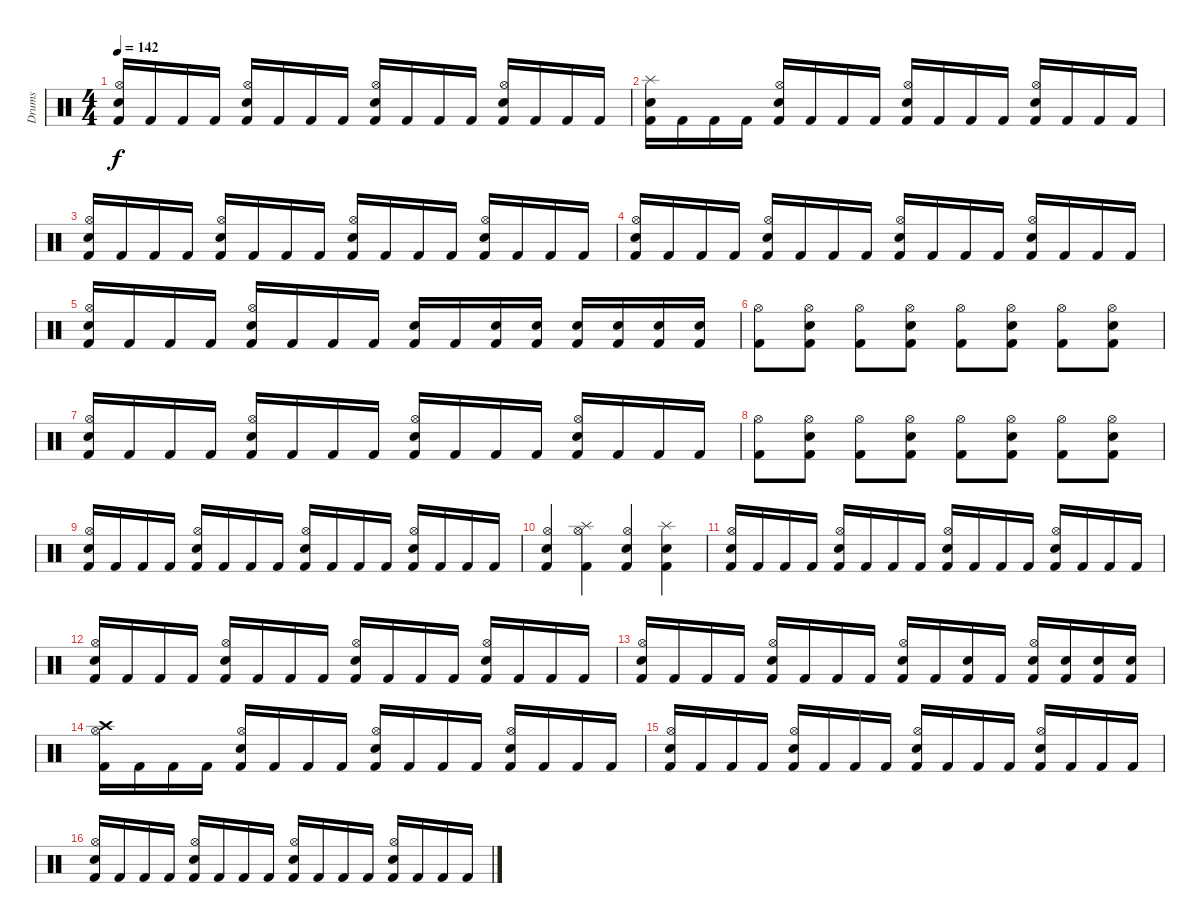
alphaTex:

\track ("Drums" "Drums") {instrument percussion}
\staff {score}
\articulation defaults
\ts (4 4)
\tempo 142
\clef neutral
\ks c
("Electric Snare (hit)" "Hi-Hat (open)" "Kick (hit) 2").16{dy f} "Kick (hit) 2".16 "Kick (hit) 2".16 "Kick (hit) 2".16 ("Electric Snare (hit)" "Hi-Hat (open)" "Kick (hit) 2").16 "Kick (hit) 2".16 "Kick (hit) 2".16 "Kick (hit) 2".16 ("Electric Snare (hit)" "Hi-Hat (open)" "Kick (hit) 2").16 "Kick (hit) 2".16 "Kick (hit) 2".16 "Kick (hit) 2".16 ("Electric Snare (hit)" "Hi-Hat (open)" "Kick (hit) 2").16 "Kick (hit) 2".16 "Kick (hit) 2".16 "Kick (hit) 2".16 |
("Splash (hit)" "Electric Snare (hit)" "Kick (hit) 2").16 "Kick (hit) 2".16 "Kick (hit) 2".16 "Kick (hit) 2".16 ("Electric Snare (hit)" "Hi-Hat (open)" "Kick (hit) 2").16 "Kick (hit) 2".16 "Kick (hit) 2".16 "Kick (hit) 2".16 ("Electric Snare (hit)" "Hi-Hat (open)" "Kick (hit) 2").16 "Kick (hit) 2".16 "Kick (hit) 2".16 "Kick (hit) 2".16 ("Electric Snare (hit)" "Hi-Hat (open)" "Kick (hit) 2").16 "Kick (hit) 2".16 "Kick (hit) 2".16 "Kick (hit) 2".16 |
("Electric Snare (hit)" "Hi-Hat (open)" "Kick (hit) 2").16 "Kick (hit) 2".16 "Kick (hit) 2".16 "Kick (hit) 2".16 ("Electric Snare (hit)" "Hi-Hat (open)" "Kick (hit) 2").16 "Kick (hit) 2".16 "Kick (hit) 2".16 "Kick (hit) 2".16 ("Electric Snare (hit)" "Hi-Hat (open)" "Kick (hit) 2").16 "Kick (hit) 2".16 "Kick (hit) 2".16 "Kick (hit) 2".16 ("Electric Snare (hit)" "Hi-Hat (open)" "Kick (hit) 2").16 "Kick (hit) 2".16 "Kick (hit) 2".16 "Kick (hit) 2".16 |
("Electric Snare (hit)" "Hi-Hat (open)" "Kick (hit) 2").16 "Kick (hit) 2".16 "Kick (hit) 2".16 "Kick (hit) 2".16 ("Electric Snare (hit)" "Hi-Hat (open)" "Kick (hit) 2").16 "Kick (hit) 2".16 "Kick (hit) 2".16 "Kick (hit) 2".16 ("Electric Snare (hit)" "Hi-Hat (open)" "Kick (hit) 2").16 "Kick (hit) 2".16 "Kick (hit) 2".16 "Kick (hit) 2".16 ("Electric Snare (hit)" "Hi-Hat (open)" "Kick (hit) 2").16 "Kick (hit) 2".16 "Kick (hit) 2".16 "Kick (hit) 2".16 |
("Electric Snare (hit)" "Hi-Hat (open)" "Kick (hit) 2").16 "Kick (hit) 2".16 "Kick (hit) 2".16 "Kick (hit) 2".16 ("Electric Snare (hit)" "Hi-Hat (open)" "Kick (hit) 2").16 "Kick (hit) 2".16 "Kick (hit) 2".16 "Kick (hit) 2".16 ("Electric Snare (hit)" "Kick (hit) 2").16 "Kick (hit) 2".16 ("Electric Snare (hit)" "Kick (hit) 2").16 ("Electric Snare (hit)" "Kick (hit) 2").16 ("Electric Snare (hit)" "Kick (hit) 2").16 ("Electric Snare (hit)" "Kick (hit) 2").16 ("Electric Snare (hit)" "Kick (hit) 2").16 ("Electric Snare (hit)" "Kick (hit) 2").16 |
("Hi-Hat (open)" "Kick (hit) 2").8 ("Hi-Hat (open)" "Electric Snare (hit)" "Kick (hit) 2").8 ("Hi-Hat (open)" "Kick (hit) 2").8 ("Hi-Hat (open)" "Electric Snare (hit)" "Kick (hit) 2").8 ("Hi-Hat (open)" "Kick (hit) 2").8 ("Hi-Hat (open)" "Electric Snare (hit)" "Kick (hit) 2").8 ("Hi-Hat (open)" "Kick (hit) 2").8 ("Hi-Hat (open)" "Electric Snare (hit)" "Kick (hit) 2").8 |
("Electric Snare (hit)" "Hi-Hat (open)" "Kick (hit) 2").16 "Kick (hit) 2".16 "Kick (hit) 2".16 "Kick (hit) 2".16 ("Electric Snare (hit)" "Hi-Hat (open)" "Kick (hit) 2").16 "Kick (hit) 2".16 "Kick (hit) 2".16 "Kick (hit) 2".16 ("Electric Snare (hit)" "Hi-Hat (open)" "Kick (hit) 2").16 "Kick (hit) 2".16 "Kick (hit) 2".16 "Kick (hit) 2".16 ("Electric Snare (hit)" "Hi-Hat (open)" "Kick (hit) 2").16 "Kick (hit) 2".16 "Kick (hit) 2".16 "Kick (hit) 2".16 |
("Hi-Hat (open)" "Kick (hit) 2").8 ("Hi-Hat (open)" "Electric Snare (hit)" "Kick (hit) 2").8 ("Hi-Hat (open)" "Kick (hit) 2").8 ("Hi-Hat (open)" "Electric Snare (hit)" "Kick (hit) 2").8 ("Hi-Hat (open)" "Kick (hit) 2").8 ("Hi-Hat (open)" "Electric Snare (hit)" "Kick (hit) 2").8 ("Hi-Hat (open)" "Kick (hit) 2").8 ("Hi-Hat (open)" "Electric Snare (hit)" "Kick (hit) 2").8 |
("Electric Snare (hit)" "Hi-Hat (open)" "Kick (hit) 2").16 "Kick (hit) 2".16 "Kick (hit) 2".16 "Kick (hit) 2".16 ("Electric Snare (hit)" "Hi-Hat (open)" "Kick (hit) 2").16 "Kick (hit) 2".16 "Kick (hit) 2".16 "Kick (hit) 2".16 ("Electric Snare (hit)" "Hi-Hat (open)" "Kick (hit) 2").16 "Kick (hit) 2".16 "Kick (hit) 2".16 "Kick (hit) 2".16 ("Electric Snare (hit)" "Hi-Hat (open)" "Kick (hit) 2").16 "Kick (hit) 2".16 "Kick (hit) 2".16 "Kick (hit) 2".16 |
("Hi-Hat (open)" "Electric Snare (hit)" "Kick (hit) 2").4 ("Splash (hit)" "Hi-Hat (open)" "Kick (hit) 2").4 ("Hi-Hat (open)" "Electric Snare (hit)" "Kick (hit) 2").4 ("Splash (hit)" "Electric Snare (hit)" "Kick (hit) 2").4 |
("Electric Snare (hit)" "Hi-Hat (open)" "Kick (hit) 2").16 "Kick (hit) 2".16 "Kick (hit) 2".16 "Kick (hit) 2".16 ("Electric Snare (hit)" "Hi-Hat (open)" "Kick (hit) 2").16 "Kick (hit) 2".16 "Kick (hit) 2".16 "Kick (hit) 2".16 ("Electric Snare (hit)" "Hi-Hat (open)" "Kick (hit) 2").16 "Kick (hit) 2".16 "Kick (hit) 2".16 "Kick (hit) 2".16 ("Electric Snare (hit)" "Hi-Hat (open)" "Kick (hit) 2").16 "Kick (hit) 2".16 "Kick (hit) 2".16 "Kick (hit) 2".16 |
("Electric Snare (hit)" "Hi-Hat (open)" "Kick (hit) 2").16 "Kick (hit) 2".16 "Kick (hit) 2".16 "Kick (hit) 2".16 ("Electric Snare (hit)" "Hi-Hat (open)" "Kick (hit) 2").16 "Kick (hit) 2".16 "Kick (hit) 2".16 "Kick (hit) 2".16 ("Electric Snare (hit)" "Hi-Hat (open)" "Kick (hit) 2").16 "Kick (hit) 2".16 "Kick (hit) 2".16 "Kick (hit) 2".16 ("Electric Snare (hit)" "Hi-Hat (open)" "Kick (hit) 2").16 "Kick (hit) 2".16 "Kick (hit) 2".16 "Kick (hit) 2".16 |
("Electric Snare (hit)" "Hi-Hat (open)" "Kick (hit) 2").16 "Kick (hit) 2".16 "Kick (hit) 2".16 "Kick (hit) 2".16 ("Electric Snare (hit)" "Hi-Hat (open)" "Kick (hit) 2").16 "Kick (hit) 2".16 "Kick (hit) 2".16 "Kick (hit) 2".16 ("Electric Snare (hit)" "Hi-Hat (open)" "Kick (hit) 2").16 "Kick (hit) 2".16 ("Electric Snare (hit)" "Kick (hit) 2").16 "Kick (hit) 2".16 ("Electric Snare (hit)" "Hi-Hat (open)" "Kick (hit) 2").16 ("Electric Snare (hit)" "Kick (hit) 2").16 ("Electric Snare (hit)" "Kick (hit) 2").16 ("Electric Snare (hit)" "Kick (hit) 2").16 |
("Crash high (hit)" "Hi-Hat (open)" "Kick (hit) 2").16 "Kick (hit) 2".16 "Kick (hit) 2".16 "Kick (hit) 2".16 ("Electric Snare (hit)" "Hi-Hat (open)" "Kick (hit) 2").16 "Kick (hit) 2".16 "Kick (hit) 2".16 "Kick (hit) 2".16 ("Electric Snare (hit)" "Hi-Hat (open)" "Kick (hit) 2").16 "Kick (hit) 2".16 "Kick (hit) 2".16 "Kick (hit) 2".16 ("Electric Snare (hit)" "Hi-Hat (open)" "Kick (hit) 2").16 "Kick (hit) 2".16 "Kick (hit) 2".16 "Kick (hit) 2".16 |
("Electric Snare (hit)" "Hi-Hat (open)" "Kick (hit) 2").16 "Kick (hit) 2".16 "Kick (hit) 2".16 "Kick (hit) 2".16 ("Electric Snare (hit)" "Hi-Hat (open)" "Kick (hit) 2").16 "Kick (hit) 2".16 "Kick (hit) 2".16 "Kick (hit) 2".16 ("Electric Snare (hit)" "Hi-Hat (open)" "Kick (hit) 2").16 "Kick (hit) 2".16 "Kick (hit) 2".16 "Kick (hit) 2".16 ("Electric Snare (hit)" "Hi-Hat (open)" "Kick (hit) 2").16 "Kick (hit) 2".16 "Kick (hit) 2".16 "Kick (hit) 2".16 |
("Electric Snare (hit)" "Hi-Hat (open)" "Kick (hit) 2").16 "Kick (hit) 2".16 "Kick (hit) 2".16 "Kick (hit) 2".16 ("Electric Snare (hit)" "Hi-Hat (open)" "Kick (hit) 2").16 "Kick (hit) 2".16 "Kick (hit) 2".16 "Kick (hit) 2".16 ("Electric Snare (hit)" "Hi-Hat (open)" "Kick (hit) 2").16 "Kick (hit) 2".16 "Kick (hit) 2".16 "Kick (hit) 2".16 ("Electric Snare (hit)" "Hi-Hat (open)" "Kick (hit) 2").16 "Kick (hit) 2".16 "Kick (hit) 2".16 "Kick (hit) 2".16
